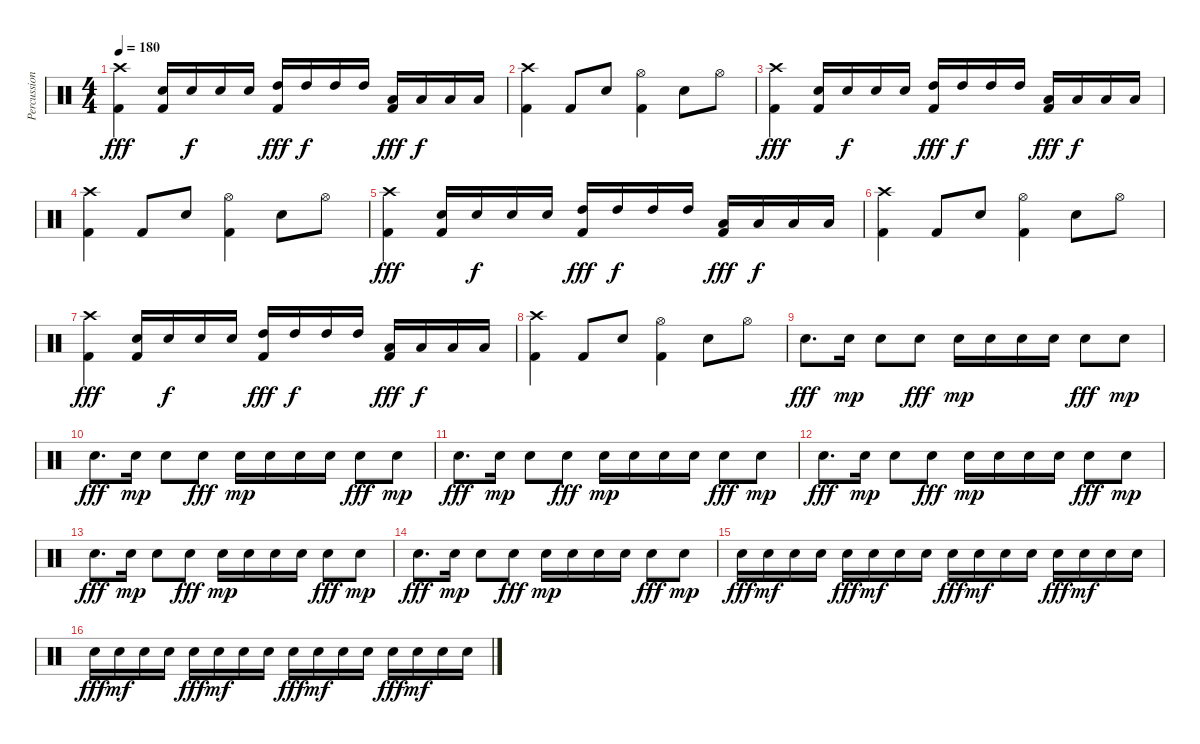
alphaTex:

\track ("Percussion" "Percussion") {instrument percussion}
\staff {score}
\articulation defaults
\ts (4 4)
\tempo 180
\clef neutral
\ks c
("Crash high (hit)" "Kick (hit) 2").4{dy fff} ("Snare (hit) 2" "Kick (hit) 2").16 "Snare (hit) 2".16{dy f} "Snare (hit) 2".16 "Snare (hit) 2".16 ("High Tom (hit)" "Kick (hit) 2").16{dy fff} "High Tom (hit)".16{dy f} "High Tom (hit)".16 "High Tom (hit)".16 ("Low Floor Tom (hit)" "Kick (hit) 2").16{dy fff} "Low Floor Tom (hit)".16{dy f} "Low Floor Tom (hit)".16 "Low Floor Tom (hit)".16 |
("Crash high (hit)" "Kick (hit) 2").4 "Kick (hit) 2".8 "Electric Snare (hit)".8 ("Hi-Hat (open)" "Kick (hit) 2").4 "Electric Snare (hit)".8 "Hi-Hat (open)".8 |
("Crash high (hit)" "Kick (hit) 2").4{dy fff} ("Snare (hit) 2" "Kick (hit) 2").16 "Snare (hit) 2".16{dy f} "Snare (hit) 2".16 "Snare (hit) 2".16 ("High Tom (hit)" "Kick (hit) 2").16{dy fff} "High Tom (hit)".16{dy f} "High Tom (hit)".16 "High Tom (hit)".16 ("Low Floor Tom (hit)" "Kick (hit) 2").16{dy fff} "Low Floor Tom (hit)".16{dy f} "Low Floor Tom (hit)".16 "Low Floor Tom (hit)".16 |
("Crash high (hit)" "Kick (hit) 2").4 "Kick (hit) 2".8 "Electric Snare (hit)".8 ("Hi-Hat (open)" "Kick (hit) 2").4 "Electric Snare (hit)".8 "Hi-Hat (open)".8 |
("Crash high (hit)" "Kick (hit) 2").4{dy fff} ("Snare (hit) 2" "Kick (hit) 2").16 "Snare (hit) 2".16{dy f} "Snare (hit) 2".16 "Snare (hit) 2".16 ("High Tom (hit)" "Kick (hit) 2").16{dy fff} "High Tom (hit)".16{dy f} "High Tom (hit)".16 "High Tom (hit)".16 ("Low Floor Tom (hit)" "Kick (hit) 2").16{dy fff} "Low Floor Tom (hit)".16{dy f} "Low Floor Tom (hit)".16 "Low Floor Tom (hit)".16 |
("Crash high (hit)" "Kick (hit) 2").4 "Kick (hit) 2".8 "Electric Snare (hit)".8 ("Hi-Hat (open)" "Kick (hit) 2").4 "Electric Snare (hit)".8 "Hi-Hat (open)".8 |
("Crash high (hit)" "Kick (hit) 2").4{dy fff} ("Snare (hit) 2" "Kick (hit) 2").16 "Snare (hit) 2".16{dy f} "Snare (hit) 2".16 "Snare (hit) 2".16 ("High Tom (hit)" "Kick (hit) 2").16{dy fff} "High Tom (hit)".16{dy f} "High Tom (hit)".16 "High Tom (hit)".16 ("Low Floor Tom (hit)" "Kick (hit) 2").16{dy fff} "Low Floor Tom (hit)".16{dy f} "Low Floor Tom (hit)".16 "Low Floor Tom (hit)".16 |
("Crash high (hit)" "Kick (hit) 2").4 "Kick (hit) 2".8 "Electric Snare (hit)".8 ("Hi-Hat (open)" "Kick (hit) 2").4 "Electric Snare (hit)".8 "Hi-Hat (open)".8 |
"Electric Snare (hit)".8{d dy fff} "Electric Snare (hit)".16{dy mp} "Electric Snare (hit)".8 "Electric Snare (hit)".8{dy fff} "Electric Snare (hit)".16{dy mp} "Electric Snare (hit)".16 "Electric Snare (hit)".16 "Electric Snare (hit)".16 "Electric Snare (hit)".8{dy fff} "Electric Snare (hit)".8{dy mp} |
"Electric Snare (hit)".8{d dy fff} "Electric Snare (hit)".16{dy mp} "Electric Snare (hit)".8 "Electric Snare (hit)".8{dy fff} "Electric Snare (hit)".16{dy mp} "Electric Snare (hit)".16 "Electric Snare (hit)".16 "Electric Snare (hit)".16 "Electric Snare (hit)".8{dy fff} "Electric Snare (hit)".8{dy mp} |
"Electric Snare (hit)".8{d dy fff} "Electric Snare (hit)".16{dy mp} "Electric Snare (hit)".8 "Electric Snare (hit)".8{dy fff} "Electric Snare (hit)".16{dy mp} "Electric Snare (hit)".16 "Electric Snare (hit)".16 "Electric Snare (hit)".16 "Electric Snare (hit)".8{dy fff} "Electric Snare (hit)".8{dy mp} |
"Electric Snare (hit)".8{d dy fff} "Electric Snare (hit)".16{dy mp} "Electric Snare (hit)".8 "Electric Snare (hit)".8{dy fff} "Electric Snare (hit)".16{dy mp} "Electric Snare (hit)".16 "Electric Snare (hit)".16 "Electric Snare (hit)".16 "Electric Snare (hit)".8{dy fff} "Electric Snare (hit)".8{dy mp} |
"Electric Snare (hit)".8{d dy fff} "Electric Snare (hit)".16{dy mp} "Electric Snare (hit)".8 "Electric Snare (hit)".8{dy fff} "Electric Snare (hit)".16{dy mp} "Electric Snare (hit)".16 "Electric Snare (hit)".16 "Electric Snare (hit)".16 "Electric Snare (hit)".8{dy fff} "Electric Snare (hit)".8{dy mp} |
"Electric Snare (hit)".8{d dy fff} "Electric Snare (hit)".16{dy mp} "Electric Snare (hit)".8 "Electric Snare (hit)".8{dy fff} "Electric Snare (hit)".16{dy mp} "Electric Snare (hit)".16 "Electric Snare (hit)".16 "Electric Snare (hit)".16 "Electric Snare (hit)".8{dy fff} "Electric Snare (hit)".8{dy mp} |
"Electric Snare (hit)".16{dy fff volume 16} "Electric Snare (hit)".16{dy mf} "Electric Snare (hit)".16 "Electric Snare (hit)".16 "Electric Snare (hit)".16{dy fff} "Electric Snare (hit)".16{dy mf} "Electric Snare (hit)".16 "Electric Snare (hit)".16 "Electric Snare (hit)".16{dy fff} "Electric Snare (hit)".16{dy mf} "Electric Snare (hit)".16 "Electric Snare (hit)".16 "Electric Snare (hit)".16{dy fff} "Electric Snare (hit)".16{dy mf} "Electric Snare (hit)".16 "Electric Snare (hit)".16 |
"Electric Snare (hit)".16{dy fff} "Electric Snare (hit)".16{dy mf} "Electric Snare (hit)".16 "Electric Snare (hit)".16 "Electric Snare (hit)".16{dy fff} "Electric Snare (hit)".16{dy mf} "Electric Snare (hit)".16 "Electric Snare (hit)".16 "Electric Snare (hit)".16{dy fff} "Electric Snare (hit)".16{dy mf} "Electric Snare (hit)".16 "Electric Snare (hit)".16 "Electric Snare (hit)".16{dy fff} "Electric Snare (hit)".16{dy mf} "Electric Snare (hit)".16 "Electric Snare (hit)".16
